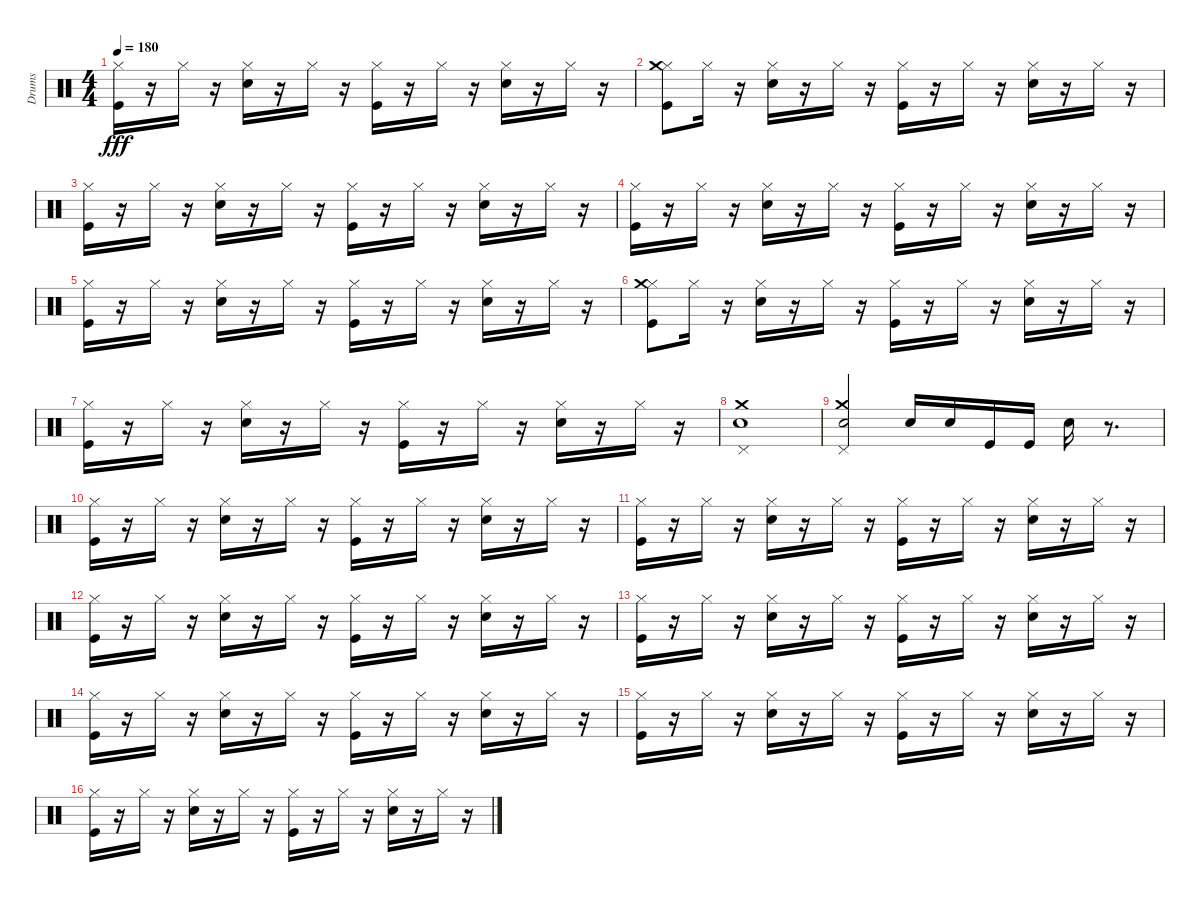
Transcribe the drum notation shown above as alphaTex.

\track ("Drums" "Drums") {instrument percussion}
\staff {score}
\articulation defaults
\ts (4 4)
\tempo 180
\clef neutral
\ks c
("Hi-Hat (closed)" "Kick (hit)").16{dy fff} r.16 "Hi-Hat (closed)".16 r.16 ("Hi-Hat (closed)" "Snare (hit) 2").16 r.16 "Hi-Hat (closed)".16 r.16 ("Hi-Hat (closed)" "Kick (hit)").16 r.16 "Hi-Hat (closed)".16 r.16 ("Hi-Hat (closed)" "Snare (hit) 2").16 r.16 "Hi-Hat (closed)".16 r.16 |
("Kick (hit)" "Hi-Hat (closed)" "Crash medium (hit)").8 "Hi-Hat (closed)".16 r.16 ("Snare (hit) 2" "Hi-Hat (closed)").16 r.16 "Hi-Hat (closed)".16 r.16 ("Kick (hit)" "Hi-Hat (closed)").16 r.16 "Hi-Hat (closed)".16 r.16 ("Snare (hit) 2" "Hi-Hat (closed)").16 r.16 "Hi-Hat (closed)".16 r.16 |
("Hi-Hat (closed)" "Kick (hit)").16 r.16 "Hi-Hat (closed)".16 r.16 ("Hi-Hat (closed)" "Snare (hit) 2").16 r.16 "Hi-Hat (closed)".16 r.16 ("Hi-Hat (closed)" "Kick (hit)").16 r.16 "Hi-Hat (closed)".16 r.16 ("Hi-Hat (closed)" "Snare (hit) 2").16 r.16 "Hi-Hat (closed)".16 r.16 |
("Kick (hit)" "Hi-Hat (closed)").16 r.16 "Hi-Hat (closed)".16 r.16 ("Snare (hit) 2" "Hi-Hat (closed)").16 r.16 "Hi-Hat (closed)".16 r.16 ("Kick (hit)" "Hi-Hat (closed)").16 r.16 "Hi-Hat (closed)".16 r.16 ("Snare (hit) 2" "Hi-Hat (closed)").16 r.16 "Hi-Hat (closed)".16 r.16 |
("Hi-Hat (closed)" "Kick (hit)").16 r.16 "Hi-Hat (closed)".16 r.16 ("Hi-Hat (closed)" "Snare (hit) 2").16 r.16 "Hi-Hat (closed)".16 r.16 ("Hi-Hat (closed)" "Kick (hit)").16 r.16 "Hi-Hat (closed)".16 r.16 ("Hi-Hat (closed)" "Snare (hit) 2").16 r.16 "Hi-Hat (closed)".16 r.16 |
("Kick (hit)" "Hi-Hat (closed)" "Crash medium (hit)").8 "Hi-Hat (closed)".16 r.16 ("Snare (hit) 2" "Hi-Hat (closed)").16 r.16 "Hi-Hat (closed)".16 r.16 ("Kick (hit)" "Hi-Hat (closed)").16 r.16 "Hi-Hat (closed)".16 r.16 ("Snare (hit) 2" "Hi-Hat (closed)").16 r.16 "Hi-Hat (closed)".16 r.16 |
("Hi-Hat (closed)" "Kick (hit)").16 r.16 "Hi-Hat (closed)".16 r.16 ("Hi-Hat (closed)" "Snare (hit) 2").16 r.16 "Hi-Hat (closed)".16 r.16 ("Hi-Hat (closed)" "Kick (hit)").16 r.16 "Hi-Hat (closed)".16 r.16 ("Hi-Hat (closed)" "Snare (hit) 2").16 r.16 "Hi-Hat (closed)".16 r.16 |
("Snare (hit) 2" "Pedal Hi-Hat (hit)" "Crash medium (hit)").1 |
("Pedal Hi-Hat (hit)" "Snare (hit) 2" "Crash medium (hit)").2 "Snare (hit) 2".16 "Snare (hit) 2".16 "Kick (hit)".16 "Kick (hit)".16 "Snare (hit) 2".16 r.8{d} |
("Kick (hit)" "Hi-Hat (closed)").16 r.16 "Hi-Hat (closed)".16 r.16 ("Snare (hit) 2" "Hi-Hat (closed)").16 r.16 "Hi-Hat (closed)".16 r.16 ("Kick (hit)" "Hi-Hat (closed)").16 r.16 "Hi-Hat (closed)".16 r.16 ("Snare (hit) 2" "Hi-Hat (closed)").16 r.16 "Hi-Hat (closed)".16 r.16 |
("Hi-Hat (closed)" "Kick (hit)").16 r.16 "Hi-Hat (closed)".16 r.16 ("Hi-Hat (closed)" "Snare (hit) 2").16 r.16 "Hi-Hat (closed)".16 r.16 ("Hi-Hat (closed)" "Kick (hit)").16 r.16 "Hi-Hat (closed)".16 r.16 ("Hi-Hat (closed)" "Snare (hit) 2").16 r.16 "Hi-Hat (closed)".16 r.16 |
("Kick (hit)" "Hi-Hat (closed)").16 r.16 "Hi-Hat (closed)".16 r.16 ("Snare (hit) 2" "Hi-Hat (closed)").16 r.16 "Hi-Hat (closed)".16 r.16 ("Kick (hit)" "Hi-Hat (closed)").16 r.16 "Hi-Hat (closed)".16 r.16 ("Snare (hit) 2" "Hi-Hat (closed)").16 r.16 "Hi-Hat (closed)".16 r.16 |
("Hi-Hat (closed)" "Kick (hit)").16 r.16 "Hi-Hat (closed)".16 r.16 ("Hi-Hat (closed)" "Snare (hit) 2").16 r.16 "Hi-Hat (closed)".16 r.16 ("Hi-Hat (closed)" "Kick (hit)").16 r.16 "Hi-Hat (closed)".16 r.16 ("Hi-Hat (closed)" "Snare (hit) 2").16 r.16 "Hi-Hat (closed)".16 r.16 |
("Kick (hit)" "Hi-Hat (closed)").16 r.16 "Hi-Hat (closed)".16 r.16 ("Snare (hit) 2" "Hi-Hat (closed)").16 r.16 "Hi-Hat (closed)".16 r.16 ("Kick (hit)" "Hi-Hat (closed)").16 r.16 "Hi-Hat (closed)".16 r.16 ("Snare (hit) 2" "Hi-Hat (closed)").16 r.16 "Hi-Hat (closed)".16 r.16 |
("Hi-Hat (closed)" "Kick (hit)").16 r.16 "Hi-Hat (closed)".16 r.16 ("Hi-Hat (closed)" "Snare (hit) 2").16 r.16 "Hi-Hat (closed)".16 r.16 ("Hi-Hat (closed)" "Kick (hit)").16 r.16 "Hi-Hat (closed)".16 r.16 ("Hi-Hat (closed)" "Snare (hit) 2").16 r.16 "Hi-Hat (closed)".16 r.16 |
("Kick (hit)" "Hi-Hat (closed)").16 r.16 "Hi-Hat (closed)".16 r.16 ("Snare (hit) 2" "Hi-Hat (closed)").16 r.16 "Hi-Hat (closed)".16 r.16 ("Kick (hit)" "Hi-Hat (closed)").16 r.16 "Hi-Hat (closed)".16 r.16 ("Snare (hit) 2" "Hi-Hat (closed)").16 r.16 "Hi-Hat (closed)".16 r.16
